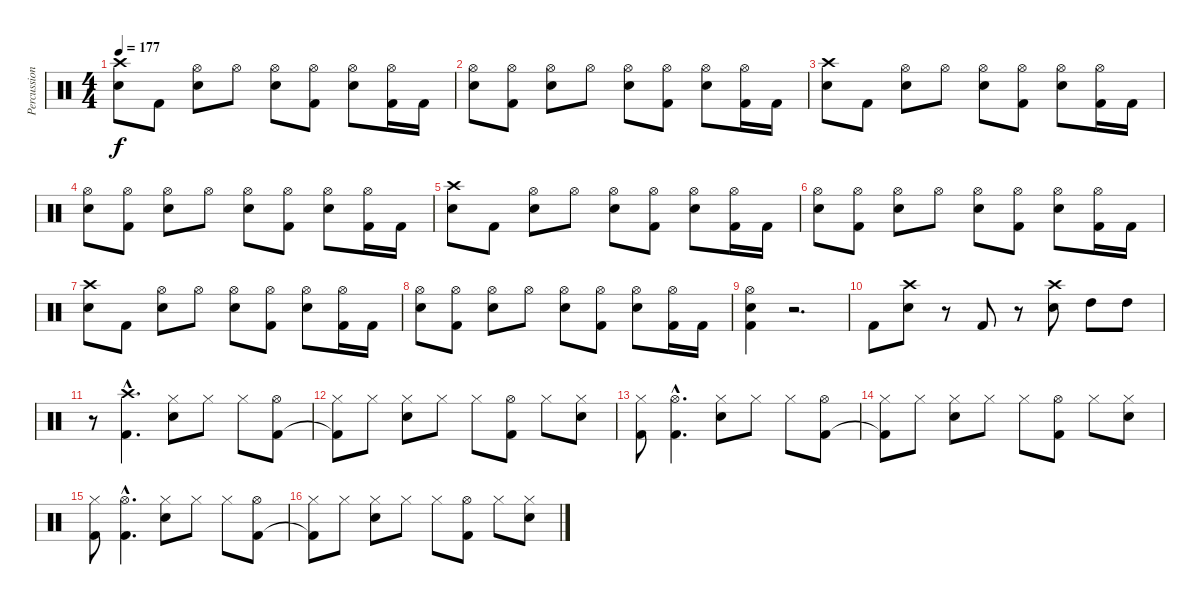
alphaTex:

\track ("Percussion" "Percussion") {instrument percussion}
\staff {score}
\articulation defaults
\ts (4 4)
\tempo 177
\clef neutral
\ks c
("Crash high (hit)" "Snare (hit) 2").8{dy f} "Kick (hit) 2".8 ("Hi-Hat (open)" "Snare (hit) 2").8 "Hi-Hat (open)".8 ("Hi-Hat (open)" "Snare (hit) 2").8 ("Hi-Hat (open)" "Kick (hit) 2").8 ("Hi-Hat (open)" "Snare (hit) 2").8 ("Hi-Hat (open)" "Kick (hit) 2").16 "Kick (hit) 2".16 |
("Hi-Hat (open)" "Snare (hit) 2").8 ("Hi-Hat (open)" "Kick (hit) 2").8 ("Hi-Hat (open)" "Snare (hit) 2").8 "Hi-Hat (open)".8 ("Hi-Hat (open)" "Snare (hit) 2").8 ("Hi-Hat (open)" "Kick (hit) 2").8 ("Hi-Hat (open)" "Snare (hit) 2").8 ("Hi-Hat (open)" "Kick (hit) 2").16 "Kick (hit) 2".16 |
("Crash high (hit)" "Snare (hit) 2").8 "Kick (hit) 2".8 ("Hi-Hat (open)" "Snare (hit) 2").8 "Hi-Hat (open)".8 ("Hi-Hat (open)" "Snare (hit) 2").8 ("Hi-Hat (open)" "Kick (hit) 2").8 ("Hi-Hat (open)" "Snare (hit) 2").8 ("Hi-Hat (open)" "Kick (hit) 2").16 "Kick (hit) 2".16 |
("Hi-Hat (open)" "Snare (hit) 2").8 ("Hi-Hat (open)" "Kick (hit) 2").8 ("Hi-Hat (open)" "Snare (hit) 2").8 "Hi-Hat (open)".8 ("Hi-Hat (open)" "Snare (hit) 2").8 ("Hi-Hat (open)" "Kick (hit) 2").8 ("Hi-Hat (open)" "Snare (hit) 2").8 ("Hi-Hat (open)" "Kick (hit) 2").16 "Kick (hit) 2".16 |
("Crash high (hit)" "Snare (hit) 2").8 "Kick (hit) 2".8 ("Hi-Hat (open)" "Snare (hit) 2").8 "Hi-Hat (open)".8 ("Hi-Hat (open)" "Snare (hit) 2").8 ("Hi-Hat (open)" "Kick (hit) 2").8 ("Hi-Hat (open)" "Snare (hit) 2").8 ("Hi-Hat (open)" "Kick (hit) 2").16 "Kick (hit) 2".16 |
("Hi-Hat (open)" "Snare (hit) 2").8 ("Hi-Hat (open)" "Kick (hit) 2").8 ("Hi-Hat (open)" "Snare (hit) 2").8 "Hi-Hat (open)".8 ("Hi-Hat (open)" "Snare (hit) 2").8 ("Hi-Hat (open)" "Kick (hit) 2").8 ("Hi-Hat (open)" "Snare (hit) 2").8 ("Hi-Hat (open)" "Kick (hit) 2").16 "Kick (hit) 2".16 |
("Crash high (hit)" "Snare (hit) 2").8 "Kick (hit) 2".8 ("Hi-Hat (open)" "Snare (hit) 2").8 "Hi-Hat (open)".8 ("Hi-Hat (open)" "Snare (hit) 2").8 ("Hi-Hat (open)" "Kick (hit) 2").8 ("Hi-Hat (open)" "Snare (hit) 2").8 ("Hi-Hat (open)" "Kick (hit) 2").16 "Kick (hit) 2".16 |
("Hi-Hat (open)" "Snare (hit) 2").8 ("Hi-Hat (open)" "Kick (hit) 2").8 ("Hi-Hat (open)" "Snare (hit) 2").8 "Hi-Hat (open)".8 ("Hi-Hat (open)" "Snare (hit) 2").8 ("Hi-Hat (open)" "Kick (hit) 2").8 ("Hi-Hat (open)" "Snare (hit) 2").8 ("Hi-Hat (open)" "Kick (hit) 2").16 "Kick (hit) 2".16 |
("Hi-Hat (open)" "Snare (hit) 2" "Kick (hit) 2").4 r.2{d} |
"Kick (hit) 2".8 ("Crash high (hit)" "Snare (hit) 2").8 r.8 "Kick (hit) 2".8 r.8 ("Crash high (hit)" "Snare (hit) 2").8 "High Tom (hit)".8 "High Tom (hit)".8 |
r.8 ("Crash high (hit)"{hac} "Kick (hit) 2"{hac}).4{d} ("Hi-Hat (closed)" "Snare (hit) 2").8 "Hi-Hat (closed)".8 "Hi-Hat (closed)".8 ("Hi-Hat (open)" "Kick (hit) 2").8 |
("Hi-Hat (closed)" "Kick (hit) 2"{t}).8 "Hi-Hat (closed)".8 ("Hi-Hat (closed)" "Snare (hit) 2").8 "Hi-Hat (closed)".8 "Hi-Hat (closed)".8 ("Hi-Hat (open)" "Kick (hit) 2").8 "Hi-Hat (closed)".8 ("Hi-Hat (closed)" "Snare (hit) 2").8 |
("Hi-Hat (closed)" "Kick (hit) 2").8 ("Hi-Hat (open)"{hac} "Kick (hit) 2"{hac}).4{d} ("Hi-Hat (closed)" "Snare (hit) 2").8 "Hi-Hat (closed)".8 "Hi-Hat (closed)".8 ("Hi-Hat (open)" "Kick (hit) 2").8 |
("Hi-Hat (closed)" "Kick (hit) 2"{t}).8 "Hi-Hat (closed)".8 ("Hi-Hat (closed)" "Snare (hit) 2").8 "Hi-Hat (closed)".8 "Hi-Hat (closed)".8 ("Hi-Hat (open)" "Kick (hit) 2").8 "Hi-Hat (closed)".8 ("Hi-Hat (closed)" "Snare (hit) 2").8 |
("Hi-Hat (closed)" "Kick (hit) 2").8 ("Hi-Hat (open)"{hac} "Kick (hit) 2"{hac}).4{d} ("Hi-Hat (closed)" "Snare (hit) 2").8 "Hi-Hat (closed)".8 "Hi-Hat (closed)".8 ("Hi-Hat (open)" "Kick (hit) 2").8 |
("Hi-Hat (closed)" "Kick (hit) 2"{t}).8 "Hi-Hat (closed)".8 ("Hi-Hat (closed)" "Snare (hit) 2").8 "Hi-Hat (closed)".8 "Hi-Hat (closed)".8 ("Hi-Hat (open)" "Kick (hit) 2").8 "Hi-Hat (closed)".8 ("Hi-Hat (closed)" "Snare (hit) 2").8
